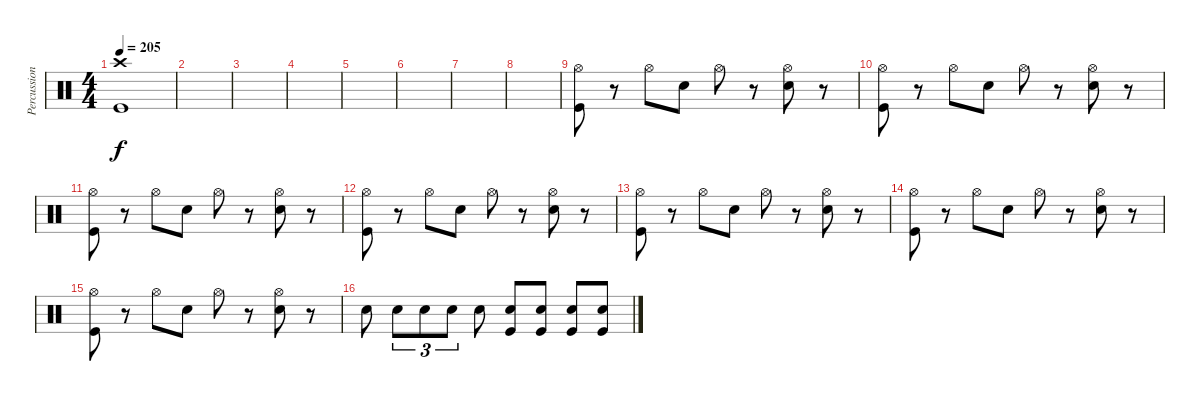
\track ("Percussion" "Percussion") {instrument percussion}
\staff {score}
\articulation defaults
\ts (4 4)
\tempo 205
\clef neutral
\ks c
("Kick (hit)" "Crash high (hit)").1{dy f} |
|
|
|
|
|
|
|
("Hi-Hat (open)" "Kick (hit)").8 r.8 "Hi-Hat (open)".8 "Snare (hit) 2".8 "Hi-Hat (open)".8 r.8 ("Hi-Hat (open)" "Snare (hit) 2").8 r.8 |
("Hi-Hat (open)" "Kick (hit)").8 r.8 "Hi-Hat (open)".8 "Snare (hit) 2".8 "Hi-Hat (open)".8 r.8 ("Hi-Hat (open)" "Snare (hit) 2").8 r.8 |
("Hi-Hat (open)" "Kick (hit)").8 r.8 "Hi-Hat (open)".8 "Snare (hit) 2".8 "Hi-Hat (open)".8 r.8 ("Hi-Hat (open)" "Snare (hit) 2").8 r.8 |
("Hi-Hat (open)" "Kick (hit)").8 r.8 "Hi-Hat (open)".8 "Snare (hit) 2".8 "Hi-Hat (open)".8 r.8 ("Hi-Hat (open)" "Snare (hit) 2").8 r.8 |
("Hi-Hat (open)" "Kick (hit)").8 r.8 "Hi-Hat (open)".8 "Snare (hit) 2".8 "Hi-Hat (open)".8 r.8 ("Hi-Hat (open)" "Snare (hit) 2").8 r.8 |
("Hi-Hat (open)" "Kick (hit)").8 r.8 "Hi-Hat (open)".8 "Snare (hit) 2".8 "Hi-Hat (open)".8 r.8 ("Hi-Hat (open)" "Snare (hit) 2").8 r.8 |
("Hi-Hat (open)" "Kick (hit)").8 r.8 "Hi-Hat (open)".8 "Snare (hit) 2".8 "Hi-Hat (open)".8 r.8 ("Hi-Hat (open)" "Snare (hit) 2").8 r.8 |
"Snare (hit) 2".8 "Snare (hit) 2".8{tu (3 2)} "Snare (hit) 2".8{tu (3 2)} "Snare (hit) 2".8{tu (3 2)} "Snare (hit) 2".8 ("Snare (hit) 2" "Kick (hit)").8 ("Snare (hit) 2" "Kick (hit)").8 ("Snare (hit) 2" "Kick (hit)").8 ("Snare (hit) 2" "Kick (hit)").8
